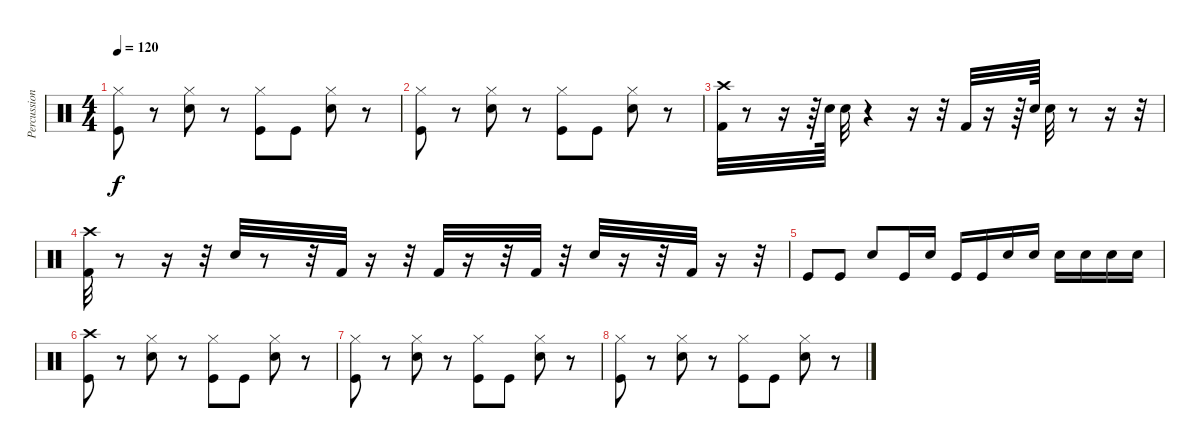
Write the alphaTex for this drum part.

\track ("Percussion" "Percussion") {instrument percussion}
\staff {score}
\articulation defaults
\ts (4 4)
\tempo 120
\clef neutral
\ks c
("Hi-Hat (closed)" "Kick (hit)").8{dy f} r.8 ("Hi-Hat (closed)" "Snare (hit) 2").8 r.8 ("Hi-Hat (closed)" "Kick (hit)").8 "Kick (hit)".8 ("Hi-Hat (closed)" "Snare (hit) 2").8 r.8 |
("Hi-Hat (closed)" "Kick (hit)").8 r.8 ("Hi-Hat (closed)" "Snare (hit) 2").8 r.8 ("Hi-Hat (closed)" "Kick (hit)").8 "Kick (hit)".8 ("Hi-Hat (closed)" "Snare (hit) 2").8 r.8 |
("Kick (hit) 2" "Crash high (hit)").32 r.8 r.16 r.64 "Snare (hit) 2".64 "Snare (hit) 2".32 r.4 r.16 r.32 "Kick (hit) 2".32 r.16 r.64 "Snare (hit) 2".64 "Snare (hit) 2".32 r.8 r.16 r.32 |
("Kick (hit) 2" "Crash high (hit)").32 r.8 r.16 r.32 "Snare (hit) 2".32 r.8 r.32 "Kick (hit) 2".32 r.16 r.32 "Kick (hit) 2".32 r.16 r.32 "Kick (hit) 2".32 r.32 "Snare (hit) 2".32 r.16 r.32 "Kick (hit) 2".32 r.16 r.32 |
"Kick (hit)".8 "Kick (hit)".8 "Snare (hit) 2".8 "Kick (hit)".16 "Snare (hit) 2".16 "Kick (hit)".16 "Kick (hit)".16 "Snare (hit) 2".16 "Snare (hit) 2".16 "Snare (hit) 2".16 "Snare (hit) 2".16 "Snare (hit) 2".16 "Snare (hit) 2".16 |
("Crash high (hit)" "Kick (hit)").8 r.8 ("Hi-Hat (closed)" "Snare (hit) 2").8 r.8 ("Hi-Hat (closed)" "Kick (hit)").8 "Kick (hit)".8 ("Hi-Hat (closed)" "Snare (hit) 2").8 r.8 |
("Hi-Hat (closed)" "Kick (hit)").8 r.8 ("Hi-Hat (closed)" "Snare (hit) 2").8 r.8 ("Hi-Hat (closed)" "Kick (hit)").8 "Kick (hit)".8 ("Hi-Hat (closed)" "Snare (hit) 2").8 r.8 |
("Hi-Hat (closed)" "Kick (hit)").8 r.8 ("Hi-Hat (closed)" "Snare (hit) 2").8 r.8 ("Hi-Hat (closed)" "Kick (hit)").8 "Kick (hit)".8 ("Hi-Hat (closed)" "Snare (hit) 2").8 r.8
